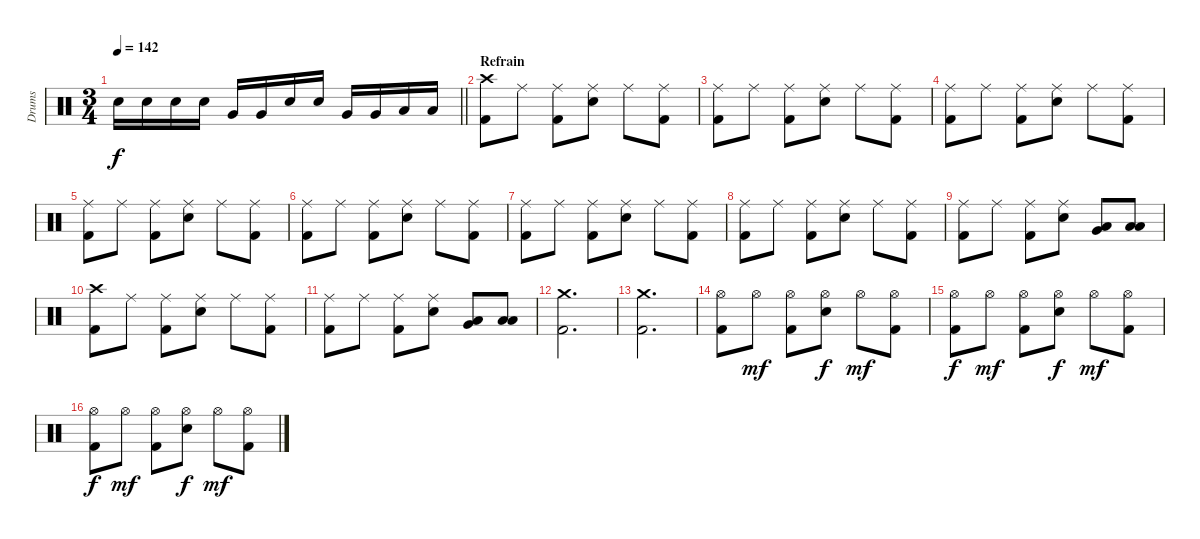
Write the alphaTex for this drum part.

\track ("Drums" "Drums") {instrument percussion}
\staff {score}
\articulation defaults
\ts (3 4)
\tempo 142
\clef neutral
\barLineRight lightlight
\ks c "Electric Snare (hit)".16{dy f} "Electric Snare (hit)".16 "Electric Snare (hit)".16 "Electric Snare (hit)".16 "Very Low Tom (hit)".16 "Very Low Tom (hit)".16 "Electric Snare (hit)".16 "Electric Snare (hit)".16 "Very Low Tom (hit)".16 "Very Low Tom (hit)".16 "Low Floor Tom (hit)".16 "Low Floor Tom (hit)".16
|
\section ("" "Refrain")
("Crash high (hit)" "Kick (hit) 2").8 "Ride (middle)".8 ("Ride (middle)" "Kick (hit) 2").8 ("Ride (middle)" "Electric Snare (hit)").8 "Ride (middle)".8 ("Ride (middle)" "Kick (hit) 2").8 |
("Ride (middle)" "Kick (hit) 2").8 "Ride (middle)".8 ("Ride (middle)" "Kick (hit) 2").8 ("Ride (middle)" "Electric Snare (hit)").8 "Ride (middle)".8 ("Ride (middle)" "Kick (hit) 2").8 |
("Ride (middle)" "Kick (hit) 2").8 "Ride (middle)".8 ("Ride (middle)" "Kick (hit) 2").8 ("Ride (middle)" "Electric Snare (hit)").8 "Ride (middle)".8 ("Ride (middle)" "Kick (hit) 2").8 |
("Ride (middle)" "Kick (hit) 2").8 "Ride (middle)".8 ("Ride (middle)" "Kick (hit) 2").8 ("Ride (middle)" "Electric Snare (hit)").8 "Ride (middle)".8 ("Ride (middle)" "Kick (hit) 2").8 |
("Ride (middle)" "Kick (hit) 2").8 "Ride (middle)".8 ("Ride (middle)" "Kick (hit) 2").8 ("Ride (middle)" "Electric Snare (hit)").8 "Ride (middle)".8 ("Ride (middle)" "Kick (hit) 2").8 |
("Ride (middle)" "Kick (hit) 2").8 "Ride (middle)".8 ("Ride (middle)" "Kick (hit) 2").8 ("Ride (middle)" "Electric Snare (hit)").8 "Ride (middle)".8 ("Ride (middle)" "Kick (hit) 2").8 |
("Ride (middle)" "Kick (hit) 2").8 "Ride (middle)".8 ("Ride (middle)" "Kick (hit) 2").8 ("Ride (middle)" "Electric Snare (hit)").8 "Ride (middle)".8 ("Ride (middle)" "Kick (hit) 2").8 |
("Ride (middle)" "Kick (hit) 2").8 "Ride (middle)".8 ("Ride (middle)" "Kick (hit) 2").8 ("Ride (middle)" "Electric Snare (hit)").8 ("Low Tom (hit)" "Very Low Tom (hit)").8 ("Low Tom (hit)" "Low Floor Tom (hit)").8 |
("Crash high (hit)" "Kick (hit) 2").8 "Ride (middle)".8 ("Ride (middle)" "Kick (hit) 2").8 ("Ride (middle)" "Electric Snare (hit)").8 "Ride (middle)".8 ("Ride (middle)" "Kick (hit) 2").8 |
("Ride (middle)" "Kick (hit) 2").8 "Ride (middle)".8 ("Ride (middle)" "Kick (hit) 2").8 ("Ride (middle)" "Electric Snare (hit)").8 ("Low Tom (hit)" "Very Low Tom (hit)").8 ("Low Tom (hit)" "Low Floor Tom (hit)").8 |
("Crash medium (hit)" "Kick (hit) 2").2{d} |
("Crash medium (hit)" "Kick (hit) 2").2{d} |
("Hi-Hat (open)" "Kick (hit) 2").8 "Hi-Hat (open)".8{dy mf} ("Hi-Hat (open)" "Kick (hit) 2").8 ("Hi-Hat (open)" "Electric Snare (hit)").8{dy f} "Hi-Hat (open)".8{dy mf} ("Hi-Hat (open)" "Kick (hit) 2").8 |
("Hi-Hat (open)" "Kick (hit) 2").8{dy f} "Hi-Hat (open)".8{dy mf} ("Hi-Hat (open)" "Kick (hit) 2").8 ("Hi-Hat (open)" "Electric Snare (hit)").8{dy f} "Hi-Hat (open)".8{dy mf} ("Hi-Hat (open)" "Kick (hit) 2").8 |
("Hi-Hat (open)" "Kick (hit) 2").8{dy f} "Hi-Hat (open)".8{dy mf} ("Hi-Hat (open)" "Kick (hit) 2").8 ("Hi-Hat (open)" "Electric Snare (hit)").8{dy f} "Hi-Hat (open)".8{dy mf} ("Hi-Hat (open)" "Kick (hit) 2").8
